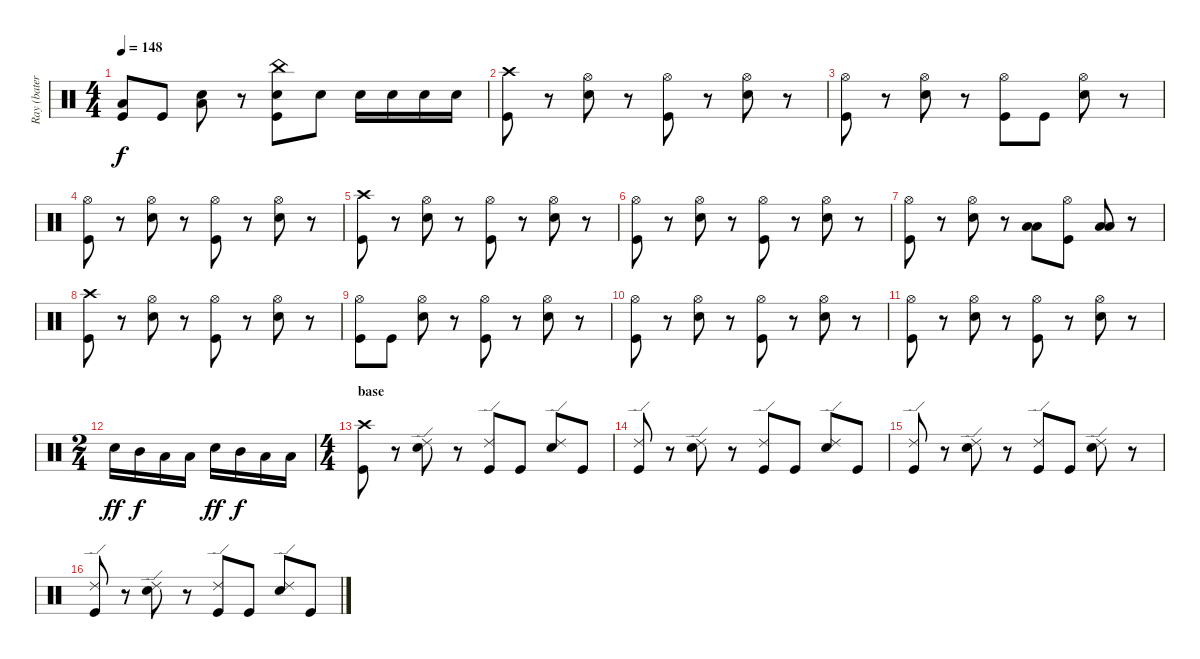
\track ("Ray (batería)" "Ray (bater") {instrument percussion}
\staff {score}
\articulation defaults
\ts (4 4)
\tempo 148
\clef neutral
\ks c
("Low Tom (hit)" "Kick (hit)").8{dy f} "Kick (hit)".8 ("Snare (hit) 2" "Low Tom (hit)").8 r.8 ("China (hit)" "Snare (hit) 2" "Kick (hit)").8 "Snare (hit) 2".8 "Snare (hit) 2".16 "Snare (hit) 2".16 "Snare (hit) 2".16 "Snare (hit) 2".16 |
("Crash high (hit)" "Kick (hit)").8 r.8 ("Hi-Hat (open)" "Snare (hit) 2").8 r.8 ("Hi-Hat (open)" "Kick (hit)").8 r.8 ("Hi-Hat (open)" "Snare (hit) 2").8 r.8 |
("Hi-Hat (open)" "Kick (hit)").8 r.8 ("Hi-Hat (open)" "Snare (hit) 2").8 r.8 ("Hi-Hat (open)" "Kick (hit)").8 "Kick (hit)".8 ("Hi-Hat (open)" "Snare (hit) 2").8 r.8 |
("Hi-Hat (open)" "Kick (hit)").8 r.8 ("Hi-Hat (open)" "Snare (hit) 2").8 r.8 ("Hi-Hat (open)" "Kick (hit)").8 r.8 ("Hi-Hat (open)" "Snare (hit) 2").8 r.8 |
("Crash high (hit)" "Kick (hit)").8 r.8 ("Hi-Hat (open)" "Snare (hit) 2").8 r.8 ("Hi-Hat (open)" "Kick (hit)").8 r.8 ("Hi-Hat (open)" "Snare (hit) 2").8 r.8 |
("Hi-Hat (open)" "Kick (hit)").8 r.8 ("Hi-Hat (open)" "Snare (hit) 2").8 r.8 ("Hi-Hat (open)" "Kick (hit)").8 r.8 ("Hi-Hat (open)" "Snare (hit) 2").8 r.8 |
("Hi-Hat (open)" "Kick (hit)").8 r.8 ("Hi-Hat (open)" "Snare (hit) 2").8 r.8 ("Low Tom (hit)" "Low Floor Tom (hit)").8 ("Hi-Hat (open)" "Kick (hit)").8 ("Low Tom (hit)" "Low Floor Tom (hit)").8 r.8 |
("Crash high (hit)" "Kick (hit)").8 r.8 ("Hi-Hat (open)" "Snare (hit) 2").8 r.8 ("Hi-Hat (open)" "Kick (hit)").8 r.8 ("Hi-Hat (open)" "Snare (hit) 2").8 r.8 |
("Hi-Hat (open)" "Kick (hit)").8 "Kick (hit)".8 ("Hi-Hat (open)" "Snare (hit) 2").8 r.8 ("Hi-Hat (open)" "Kick (hit)").8 r.8 ("Hi-Hat (open)" "Snare (hit) 2").8 r.8 |
("Hi-Hat (open)" "Kick (hit)").8 r.8 ("Hi-Hat (open)" "Snare (hit) 2").8 r.8 ("Hi-Hat (open)" "Kick (hit)").8 r.8 ("Hi-Hat (open)" "Snare (hit) 2").8 r.8 |
("Hi-Hat (open)" "Kick (hit)").8 r.8 ("Hi-Hat (open)" "Snare (hit) 2").8 r.8 ("Hi-Hat (open)" "Kick (hit)").8 r.8 ("Hi-Hat (open)" "Snare (hit) 2").8 r.8 |
\ts (2 4)
"Snare (hit) 2".16{dy ff} "Mid Tom (hit)".16{dy f} "Low Tom (hit)".16 "Low Tom (hit)".16 "Snare (hit) 2".16{dy ff} "Mid Tom (hit)".16{dy f} "Low Tom (hit)".16 "Low Tom (hit)".16 |
\ts (4 4)
\section ("" "base")
("Crash high (hit)" "Kick (hit)").8 r.8 ("Ride (edge) 2" "Snare (hit) 2").8 r.8 ("Ride (edge) 2" "Kick (hit)").8 "Kick (hit)".8 ("Ride (edge) 2" "Snare (hit) 2").8 "Kick (hit)".8 |
("Ride (edge) 2" "Kick (hit)").8 r.8 ("Ride (edge) 2" "Snare (hit) 2").8 r.8 ("Ride (edge) 2" "Kick (hit)").8 "Kick (hit)".8 ("Ride (edge) 2" "Snare (hit) 2").8 "Kick (hit)".8 |
("Ride (edge) 2" "Kick (hit)").8 r.8 ("Ride (edge) 2" "Snare (hit) 2").8 r.8 ("Ride (edge) 2" "Kick (hit)").8 "Kick (hit)".8 ("Ride (edge) 2" "Snare (hit) 2").8 r.8 |
("Ride (edge) 2" "Kick (hit)").8 r.8 ("Ride (edge) 2" "Snare (hit) 2").8 r.8 ("Ride (edge) 2" "Kick (hit)").8 "Kick (hit)".8 ("Ride (edge) 2" "Snare (hit) 2").8 "Kick (hit)".8
